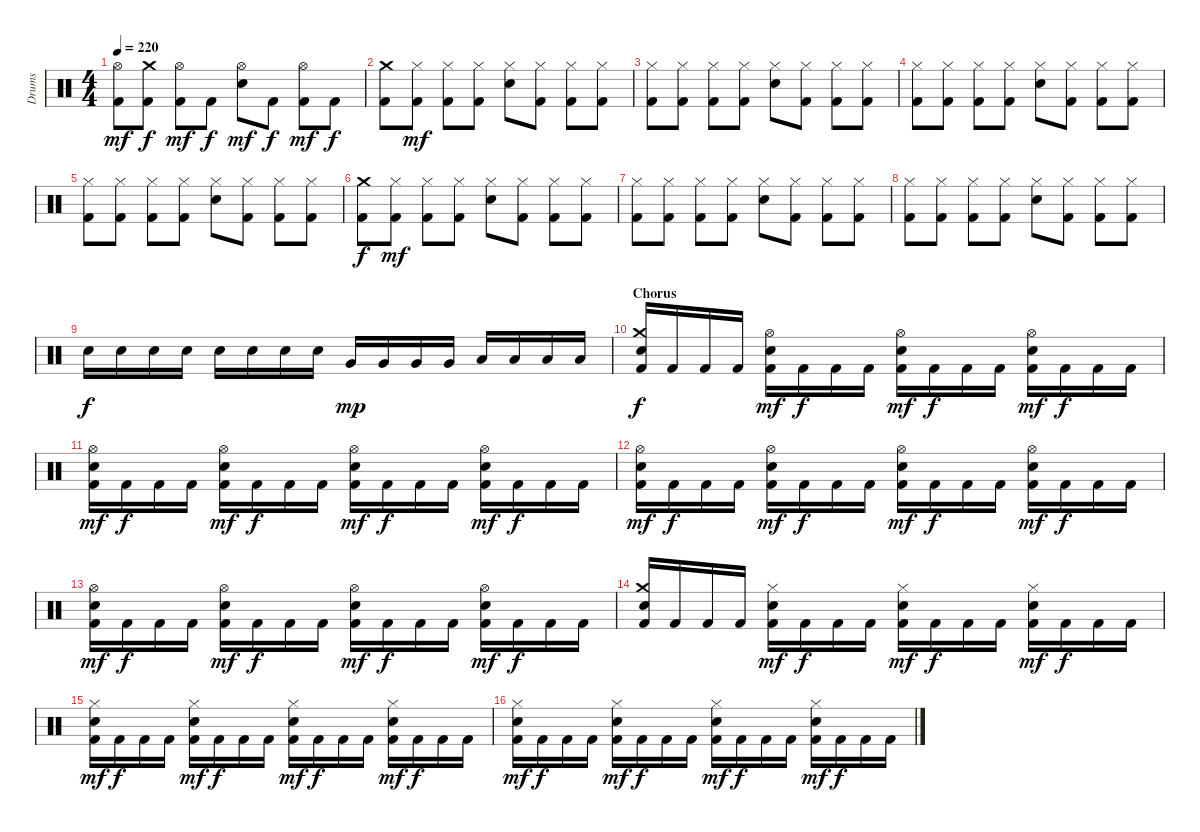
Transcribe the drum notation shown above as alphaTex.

\track ("Drums" "Drums") {instrument percussion}
\staff {score}
\articulation defaults
\ts (4 4)
\tempo 220
\clef neutral
\ks c
("Hi-Hat (open)" "Kick (hit) 2").8{dy mf} ("Crash medium (hit)" "Kick (hit) 2").8{dy f} ("Hi-Hat (open)" "Kick (hit) 2").8{dy mf} "Kick (hit) 2".8{dy f} ("Hi-Hat (open)" "Electric Snare (hit)").8{dy mf} "Kick (hit) 2".8{dy f} ("Hi-Hat (open)" "Kick (hit) 2").8{dy mf} "Kick (hit) 2".8{dy f} |
("Crash medium (hit)" "Kick (hit) 2").8 ("Hi-Hat (closed)" "Kick (hit) 2").8{dy mf} ("Hi-Hat (closed)" "Kick (hit) 2").8 ("Hi-Hat (closed)" "Kick (hit) 2").8 ("Hi-Hat (closed)" "Electric Snare (hit)").8 ("Hi-Hat (closed)" "Kick (hit) 2").8 ("Hi-Hat (closed)" "Kick (hit) 2").8 ("Hi-Hat (closed)" "Kick (hit) 2").8 |
("Hi-Hat (closed)" "Kick (hit) 2").8 ("Hi-Hat (closed)" "Kick (hit) 2").8 ("Hi-Hat (closed)" "Kick (hit) 2").8 ("Hi-Hat (closed)" "Kick (hit) 2").8 ("Hi-Hat (closed)" "Electric Snare (hit)").8 ("Hi-Hat (closed)" "Kick (hit) 2").8 ("Hi-Hat (closed)" "Kick (hit) 2").8 ("Hi-Hat (closed)" "Kick (hit) 2").8 |
("Hi-Hat (closed)" "Kick (hit) 2").8 ("Hi-Hat (closed)" "Kick (hit) 2").8 ("Hi-Hat (closed)" "Kick (hit) 2").8 ("Hi-Hat (closed)" "Kick (hit) 2").8 ("Hi-Hat (closed)" "Electric Snare (hit)").8 ("Hi-Hat (closed)" "Kick (hit) 2").8 ("Hi-Hat (closed)" "Kick (hit) 2").8 ("Hi-Hat (closed)" "Kick (hit) 2").8 |
("Hi-Hat (closed)" "Kick (hit) 2").8 ("Hi-Hat (closed)" "Kick (hit) 2").8 ("Hi-Hat (closed)" "Kick (hit) 2").8 ("Hi-Hat (closed)" "Kick (hit) 2").8 ("Hi-Hat (closed)" "Electric Snare (hit)").8 ("Hi-Hat (closed)" "Kick (hit) 2").8 ("Hi-Hat (closed)" "Kick (hit) 2").8 ("Hi-Hat (closed)" "Kick (hit) 2").8 |
("Crash medium (hit)" "Kick (hit) 2").8{dy f} ("Hi-Hat (closed)" "Kick (hit) 2").8{dy mf} ("Hi-Hat (closed)" "Kick (hit) 2").8 ("Hi-Hat (closed)" "Kick (hit) 2").8 ("Hi-Hat (closed)" "Electric Snare (hit)").8 ("Hi-Hat (closed)" "Kick (hit) 2").8 ("Hi-Hat (closed)" "Kick (hit) 2").8 ("Hi-Hat (closed)" "Kick (hit) 2").8 |
("Hi-Hat (closed)" "Kick (hit) 2").8 ("Hi-Hat (closed)" "Kick (hit) 2").8 ("Hi-Hat (closed)" "Kick (hit) 2").8 ("Hi-Hat (closed)" "Kick (hit) 2").8 ("Hi-Hat (closed)" "Electric Snare (hit)").8 ("Hi-Hat (closed)" "Kick (hit) 2").8 ("Hi-Hat (closed)" "Kick (hit) 2").8 ("Hi-Hat (closed)" "Kick (hit) 2").8 |
("Hi-Hat (closed)" "Kick (hit) 2").8 ("Hi-Hat (closed)" "Kick (hit) 2").8 ("Hi-Hat (closed)" "Kick (hit) 2").8 ("Hi-Hat (closed)" "Kick (hit) 2").8 ("Hi-Hat (closed)" "Electric Snare (hit)").8 ("Hi-Hat (closed)" "Kick (hit) 2").8 ("Hi-Hat (closed)" "Kick (hit) 2").8 ("Hi-Hat (closed)" "Kick (hit) 2").8 |
"Electric Snare (hit)".16{dy f} "Electric Snare (hit)".16 "Electric Snare (hit)".16 "Electric Snare (hit)".16 "Electric Snare (hit)".16 "Electric Snare (hit)".16 "Electric Snare (hit)".16 "Electric Snare (hit)".16 "Very Low Tom (hit)".16{dy mp} "Very Low Tom (hit)".16 "Very Low Tom (hit)".16 "Very Low Tom (hit)".16 "Low Tom (hit)".16 "Low Tom (hit)".16 "Low Tom (hit)".16 "Low Tom (hit)".16 |
\section ("" "Chorus")
("Crash medium (hit)" "Electric Snare (hit)" "Kick (hit) 2").16{dy f} "Kick (hit) 2".16 "Kick (hit) 2".16 "Kick (hit) 2".16 ("Hi-Hat (open)" "Electric Snare (hit)" "Kick (hit) 2").16{dy mf} "Kick (hit) 2".16{dy f} "Kick (hit) 2".16 "Kick (hit) 2".16 ("Hi-Hat (open)" "Electric Snare (hit)" "Kick (hit) 2").16{dy mf} "Kick (hit) 2".16{dy f} "Kick (hit) 2".16 "Kick (hit) 2".16 ("Hi-Hat (open)" "Electric Snare (hit)" "Kick (hit) 2").16{dy mf} "Kick (hit) 2".16{dy f} "Kick (hit) 2".16 "Kick (hit) 2".16 |
("Hi-Hat (open)" "Electric Snare (hit)" "Kick (hit) 2").16{dy mf} "Kick (hit) 2".16{dy f} "Kick (hit) 2".16 "Kick (hit) 2".16 ("Hi-Hat (open)" "Electric Snare (hit)" "Kick (hit) 2").16{dy mf} "Kick (hit) 2".16{dy f} "Kick (hit) 2".16 "Kick (hit) 2".16 ("Hi-Hat (open)" "Electric Snare (hit)" "Kick (hit) 2").16{dy mf} "Kick (hit) 2".16{dy f} "Kick (hit) 2".16 "Kick (hit) 2".16 ("Hi-Hat (open)" "Electric Snare (hit)" "Kick (hit) 2").16{dy mf} "Kick (hit) 2".16{dy f} "Kick (hit) 2".16 "Kick (hit) 2".16 |
("Hi-Hat (open)" "Electric Snare (hit)" "Kick (hit) 2").16{dy mf} "Kick (hit) 2".16{dy f} "Kick (hit) 2".16 "Kick (hit) 2".16 ("Hi-Hat (open)" "Electric Snare (hit)" "Kick (hit) 2").16{dy mf} "Kick (hit) 2".16{dy f} "Kick (hit) 2".16 "Kick (hit) 2".16 ("Hi-Hat (open)" "Electric Snare (hit)" "Kick (hit) 2").16{dy mf} "Kick (hit) 2".16{dy f} "Kick (hit) 2".16 "Kick (hit) 2".16 ("Hi-Hat (open)" "Electric Snare (hit)" "Kick (hit) 2").16{dy mf} "Kick (hit) 2".16{dy f} "Kick (hit) 2".16 "Kick (hit) 2".16 |
("Hi-Hat (open)" "Electric Snare (hit)" "Kick (hit) 2").16{dy mf} "Kick (hit) 2".16{dy f} "Kick (hit) 2".16 "Kick (hit) 2".16 ("Hi-Hat (open)" "Electric Snare (hit)" "Kick (hit) 2").16{dy mf} "Kick (hit) 2".16{dy f} "Kick (hit) 2".16 "Kick (hit) 2".16 ("Hi-Hat (open)" "Electric Snare (hit)" "Kick (hit) 2").16{dy mf} "Kick (hit) 2".16{dy f} "Kick (hit) 2".16 "Kick (hit) 2".16 ("Hi-Hat (open)" "Electric Snare (hit)" "Kick (hit) 2").16{dy mf} "Kick (hit) 2".16{dy f} "Kick (hit) 2".16 "Kick (hit) 2".16 |
("Crash medium (hit)" "Electric Snare (hit)" "Kick (hit) 2").16 "Kick (hit) 2".16 "Kick (hit) 2".16 "Kick (hit) 2".16 ("Hi-Hat (closed)" "Electric Snare (hit)" "Kick (hit) 2").16{dy mf} "Kick (hit) 2".16{dy f} "Kick (hit) 2".16 "Kick (hit) 2".16 ("Hi-Hat (closed)" "Electric Snare (hit)" "Kick (hit) 2").16{dy mf} "Kick (hit) 2".16{dy f} "Kick (hit) 2".16 "Kick (hit) 2".16 ("Hi-Hat (closed)" "Electric Snare (hit)" "Kick (hit) 2").16{dy mf} "Kick (hit) 2".16{dy f} "Kick (hit) 2".16 "Kick (hit) 2".16 |
("Hi-Hat (closed)" "Electric Snare (hit)" "Kick (hit) 2").16{dy mf} "Kick (hit) 2".16{dy f} "Kick (hit) 2".16 "Kick (hit) 2".16 ("Hi-Hat (closed)" "Electric Snare (hit)" "Kick (hit) 2").16{dy mf} "Kick (hit) 2".16{dy f} "Kick (hit) 2".16 "Kick (hit) 2".16 ("Hi-Hat (closed)" "Electric Snare (hit)" "Kick (hit) 2").16{dy mf} "Kick (hit) 2".16{dy f} "Kick (hit) 2".16 "Kick (hit) 2".16 ("Hi-Hat (closed)" "Electric Snare (hit)" "Kick (hit) 2").16{dy mf} "Kick (hit) 2".16{dy f} "Kick (hit) 2".16 "Kick (hit) 2".16 |
("Hi-Hat (closed)" "Electric Snare (hit)" "Kick (hit) 2").16{dy mf} "Kick (hit) 2".16{dy f} "Kick (hit) 2".16 "Kick (hit) 2".16 ("Hi-Hat (closed)" "Electric Snare (hit)" "Kick (hit) 2").16{dy mf} "Kick (hit) 2".16{dy f} "Kick (hit) 2".16 "Kick (hit) 2".16 ("Hi-Hat (closed)" "Electric Snare (hit)" "Kick (hit) 2").16{dy mf} "Kick (hit) 2".16{dy f} "Kick (hit) 2".16 "Kick (hit) 2".16 ("Hi-Hat (closed)" "Electric Snare (hit)" "Kick (hit) 2").16{dy mf} "Kick (hit) 2".16{dy f} "Kick (hit) 2".16 "Kick (hit) 2".16
